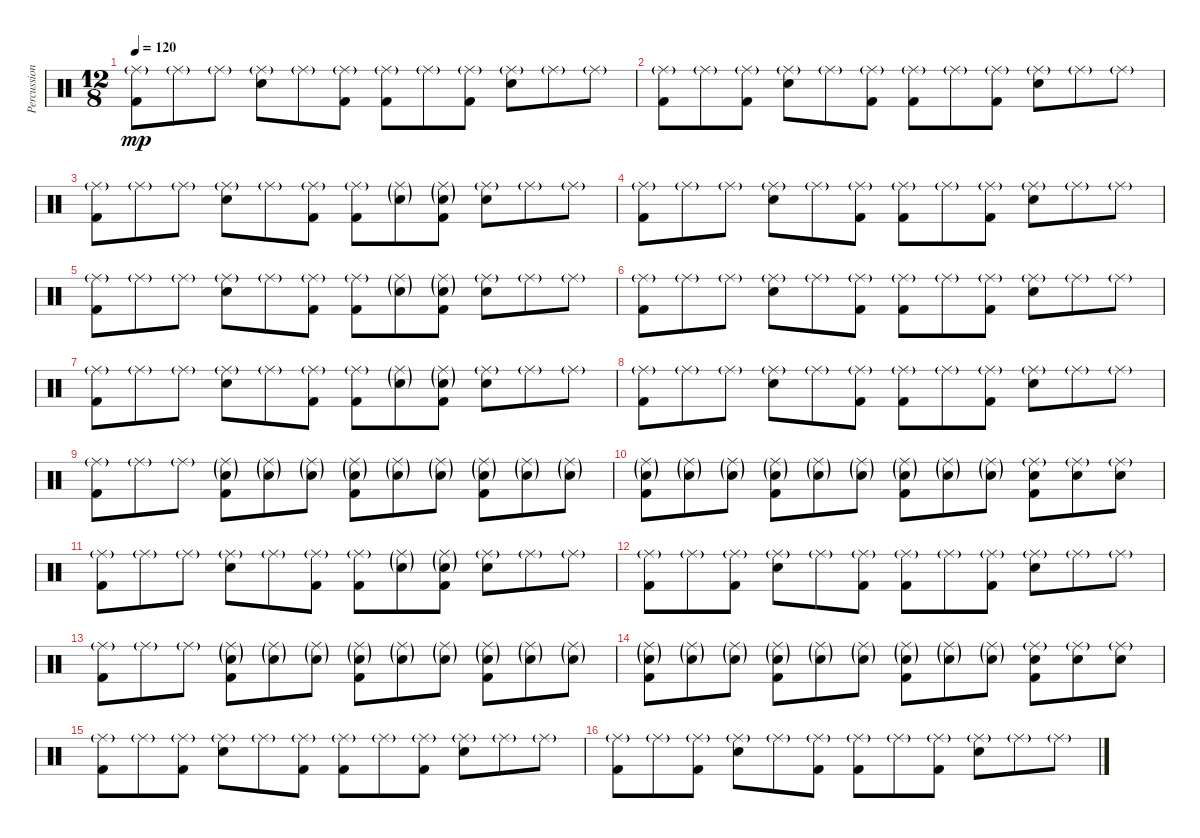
\track ("Percussion" "Percussion") {instrument percussion}
\staff {score}
\articulation defaults
\ts (12 8)
\tempo 120
\clef neutral
\ks c
("Ride (middle)"{g} "Kick (hit) 2").8{dy mp} "Ride (middle)"{g}.8 "Ride (middle)"{g}.8 ("Ride (middle)"{g} "Electric Snare (hit)").8 "Ride (middle)"{g}.8 ("Ride (middle)"{g} "Kick (hit) 2").8 ("Ride (middle)"{g} "Kick (hit) 2").8 "Ride (middle)"{g}.8 ("Ride (middle)"{g} "Kick (hit) 2").8 ("Ride (middle)"{g} "Electric Snare (hit)").8 "Ride (middle)"{g}.8 "Ride (middle)"{g}.8 |
("Ride (middle)"{g} "Kick (hit) 2").8 "Ride (middle)"{g}.8 ("Ride (middle)"{g} "Kick (hit) 2").8 ("Ride (middle)"{g} "Electric Snare (hit)").8 "Ride (middle)"{g}.8 ("Ride (middle)"{g} "Kick (hit) 2").8 ("Ride (middle)"{g} "Kick (hit) 2").8 "Ride (middle)"{g}.8 ("Ride (middle)"{g} "Kick (hit) 2").8 ("Ride (middle)"{g} "Electric Snare (hit)").8 "Ride (middle)"{g}.8 "Ride (middle)"{g}.8 |
("Ride (middle)"{g} "Kick (hit) 2").8 "Ride (middle)"{g}.8 "Ride (middle)"{g}.8 ("Ride (middle)"{g} "Electric Snare (hit)").8 "Ride (middle)"{g}.8 ("Ride (middle)"{g} "Kick (hit) 2").8 ("Ride (middle)"{g} "Kick (hit) 2").8 ("Ride (middle)"{g} "Electric Snare (hit)"{g}).8 ("Ride (middle)"{g} "Electric Snare (hit)"{g} "Kick (hit) 2").8 ("Ride (middle)"{g} "Electric Snare (hit)").8 "Ride (middle)"{g}.8 "Ride (middle)"{g}.8 |
("Ride (middle)"{g} "Kick (hit) 2").8 "Ride (middle)"{g}.8 "Ride (middle)"{g}.8 ("Ride (middle)"{g} "Electric Snare (hit)").8 "Ride (middle)"{g}.8 ("Ride (middle)"{g} "Kick (hit) 2").8 ("Ride (middle)"{g} "Kick (hit) 2").8 "Ride (middle)"{g}.8 ("Ride (middle)"{g} "Kick (hit) 2").8 ("Ride (middle)"{g} "Electric Snare (hit)").8 "Ride (middle)"{g}.8 "Ride (middle)"{g}.8 |
("Ride (middle)"{g} "Kick (hit) 2").8 "Ride (middle)"{g}.8 "Ride (middle)"{g}.8 ("Ride (middle)"{g} "Electric Snare (hit)").8 "Ride (middle)"{g}.8 ("Ride (middle)"{g} "Kick (hit) 2").8 ("Ride (middle)"{g} "Kick (hit) 2").8 ("Ride (middle)"{g} "Electric Snare (hit)"{g}).8 ("Ride (middle)"{g} "Electric Snare (hit)"{g} "Kick (hit) 2").8 ("Ride (middle)"{g} "Electric Snare (hit)").8 "Ride (middle)"{g}.8 "Ride (middle)"{g}.8 |
("Ride (middle)"{g} "Kick (hit) 2").8 "Ride (middle)"{g}.8 "Ride (middle)"{g}.8 ("Ride (middle)"{g} "Electric Snare (hit)").8 "Ride (middle)"{g}.8 ("Ride (middle)"{g} "Kick (hit) 2").8 ("Ride (middle)"{g} "Kick (hit) 2").8 "Ride (middle)"{g}.8 ("Ride (middle)"{g} "Kick (hit) 2").8 ("Ride (middle)"{g} "Electric Snare (hit)").8 "Ride (middle)"{g}.8 "Ride (middle)"{g}.8 |
("Ride (middle)"{g} "Kick (hit) 2").8 "Ride (middle)"{g}.8 "Ride (middle)"{g}.8 ("Ride (middle)"{g} "Electric Snare (hit)").8 "Ride (middle)"{g}.8 ("Ride (middle)"{g} "Kick (hit) 2").8 ("Ride (middle)"{g} "Kick (hit) 2").8 ("Ride (middle)"{g} "Electric Snare (hit)"{g}).8 ("Ride (middle)"{g} "Electric Snare (hit)"{g} "Kick (hit) 2").8 ("Ride (middle)"{g} "Electric Snare (hit)").8 "Ride (middle)"{g}.8 "Ride (middle)"{g}.8 |
("Ride (middle)"{g} "Kick (hit) 2").8 "Ride (middle)"{g}.8 "Ride (middle)"{g}.8 ("Ride (middle)"{g} "Electric Snare (hit)").8 "Ride (middle)"{g}.8 ("Ride (middle)"{g} "Kick (hit) 2").8 ("Ride (middle)"{g} "Kick (hit) 2").8 "Ride (middle)"{g}.8 ("Ride (middle)"{g} "Kick (hit) 2").8 ("Ride (middle)"{g} "Electric Snare (hit)").8 "Ride (middle)"{g}.8 "Ride (middle)"{g}.8 |
("Ride (middle)"{g} "Kick (hit) 2").8 "Ride (middle)"{g}.8 "Ride (middle)"{g}.8 ("Ride (middle)"{g} "Electric Snare (hit)"{g} "Kick (hit) 2").8 ("Ride (middle)"{g} "Electric Snare (hit)"{g}).8 ("Ride (middle)"{g} "Electric Snare (hit)"{g}).8 ("Ride (middle)"{g} "Electric Snare (hit)"{g} "Kick (hit) 2").8 ("Ride (middle)"{g} "Electric Snare (hit)"{g}).8 ("Ride (middle)"{g} "Electric Snare (hit)"{g}).8 ("Ride (middle)"{g} "Electric Snare (hit)"{g} "Kick (hit) 2").8 ("Ride (middle)"{g} "Electric Snare (hit)"{g}).8 ("Ride (middle)"{g} "Electric Snare (hit)"{g}).8 |
("Ride (middle)"{g} "Electric Snare (hit)"{g} "Kick (hit) 2").8 ("Ride (middle)"{g} "Electric Snare (hit)"{g}).8 ("Ride (middle)"{g} "Electric Snare (hit)"{g}).8 ("Ride (middle)"{g} "Electric Snare (hit)"{g} "Kick (hit) 2").8 ("Ride (middle)"{g} "Electric Snare (hit)"{g}).8 ("Ride (middle)"{g} "Electric Snare (hit)"{g}).8 ("Ride (middle)"{g} "Electric Snare (hit)"{g} "Kick (hit) 2").8 ("Ride (middle)"{g} "Electric Snare (hit)"{g}).8 ("Ride (middle)"{g} "Electric Snare (hit)"{g}).8 ("Ride (middle)"{g} "Electric Snare (hit)" "Kick (hit) 2").8 ("Ride (middle)"{g} "Electric Snare (hit)").8 ("Ride (middle)"{g} "Electric Snare (hit)").8 |
("Ride (middle)"{g} "Kick (hit) 2").8 "Ride (middle)"{g}.8 "Ride (middle)"{g}.8 ("Ride (middle)"{g} "Electric Snare (hit)").8 "Ride (middle)"{g}.8 ("Ride (middle)"{g} "Kick (hit) 2").8 ("Ride (middle)"{g} "Kick (hit) 2").8 ("Ride (middle)"{g} "Electric Snare (hit)"{g}).8 ("Ride (middle)"{g} "Electric Snare (hit)"{g} "Kick (hit) 2").8 ("Ride (middle)"{g} "Electric Snare (hit)").8 "Ride (middle)"{g}.8 "Ride (middle)"{g}.8 |
("Ride (middle)"{g} "Kick (hit) 2").8 "Ride (middle)"{g}.8 ("Ride (middle)"{g} "Kick (hit) 2").8 ("Ride (middle)"{g} "Electric Snare (hit)").8 "Ride (middle)"{g}.8 ("Ride (middle)"{g} "Kick (hit) 2").8 ("Ride (middle)"{g} "Kick (hit) 2").8 "Ride (middle)"{g}.8 ("Ride (middle)"{g} "Kick (hit) 2").8 ("Ride (middle)"{g} "Electric Snare (hit)").8 "Ride (middle)"{g}.8 "Ride (middle)"{g}.8 |
("Ride (middle)"{g} "Kick (hit) 2").8 "Ride (middle)"{g}.8 "Ride (middle)"{g}.8 ("Ride (middle)"{g} "Electric Snare (hit)"{g} "Kick (hit) 2").8 ("Ride (middle)"{g} "Electric Snare (hit)"{g}).8 ("Ride (middle)"{g} "Electric Snare (hit)"{g}).8 ("Ride (middle)"{g} "Electric Snare (hit)"{g} "Kick (hit) 2").8 ("Ride (middle)"{g} "Electric Snare (hit)"{g}).8 ("Ride (middle)"{g} "Electric Snare (hit)"{g}).8 ("Ride (middle)"{g} "Electric Snare (hit)"{g} "Kick (hit) 2").8 ("Ride (middle)"{g} "Electric Snare (hit)"{g}).8 ("Ride (middle)"{g} "Electric Snare (hit)"{g}).8 |
("Ride (middle)"{g} "Electric Snare (hit)"{g} "Kick (hit) 2").8 ("Ride (middle)"{g} "Electric Snare (hit)"{g}).8 ("Ride (middle)"{g} "Electric Snare (hit)"{g}).8 ("Ride (middle)"{g} "Electric Snare (hit)"{g} "Kick (hit) 2").8 ("Ride (middle)"{g} "Electric Snare (hit)"{g}).8 ("Ride (middle)"{g} "Electric Snare (hit)"{g}).8 ("Ride (middle)"{g} "Electric Snare (hit)"{g} "Kick (hit) 2").8 ("Ride (middle)"{g} "Electric Snare (hit)"{g}).8 ("Ride (middle)"{g} "Electric Snare (hit)"{g}).8 ("Ride (middle)"{g} "Electric Snare (hit)" "Kick (hit) 2").8 ("Ride (middle)"{g} "Electric Snare (hit)").8 ("Ride (middle)"{g} "Electric Snare (hit)").8 |
("Ride (middle)"{g} "Kick (hit) 2").8 "Ride (middle)"{g}.8 ("Ride (middle)"{g} "Kick (hit) 2").8 ("Ride (middle)"{g} "Electric Snare (hit)").8 "Ride (middle)"{g}.8 ("Ride (middle)"{g} "Kick (hit) 2").8 ("Ride (middle)"{g} "Kick (hit) 2").8 "Ride (middle)"{g}.8 ("Ride (middle)"{g} "Kick (hit) 2").8 ("Ride (middle)"{g} "Electric Snare (hit)").8 "Ride (middle)"{g}.8 "Ride (middle)"{g}.8 |
("Ride (middle)"{g} "Kick (hit) 2").8 "Ride (middle)"{g}.8 ("Ride (middle)"{g} "Kick (hit) 2").8 ("Ride (middle)"{g} "Electric Snare (hit)").8 "Ride (middle)"{g}.8 ("Ride (middle)"{g} "Kick (hit) 2").8 ("Ride (middle)"{g} "Kick (hit) 2").8 "Ride (middle)"{g}.8 ("Ride (middle)"{g} "Kick (hit) 2").8 ("Ride (middle)"{g} "Electric Snare (hit)").8 "Ride (middle)"{g}.8 "Ride (middle)"{g}.8
